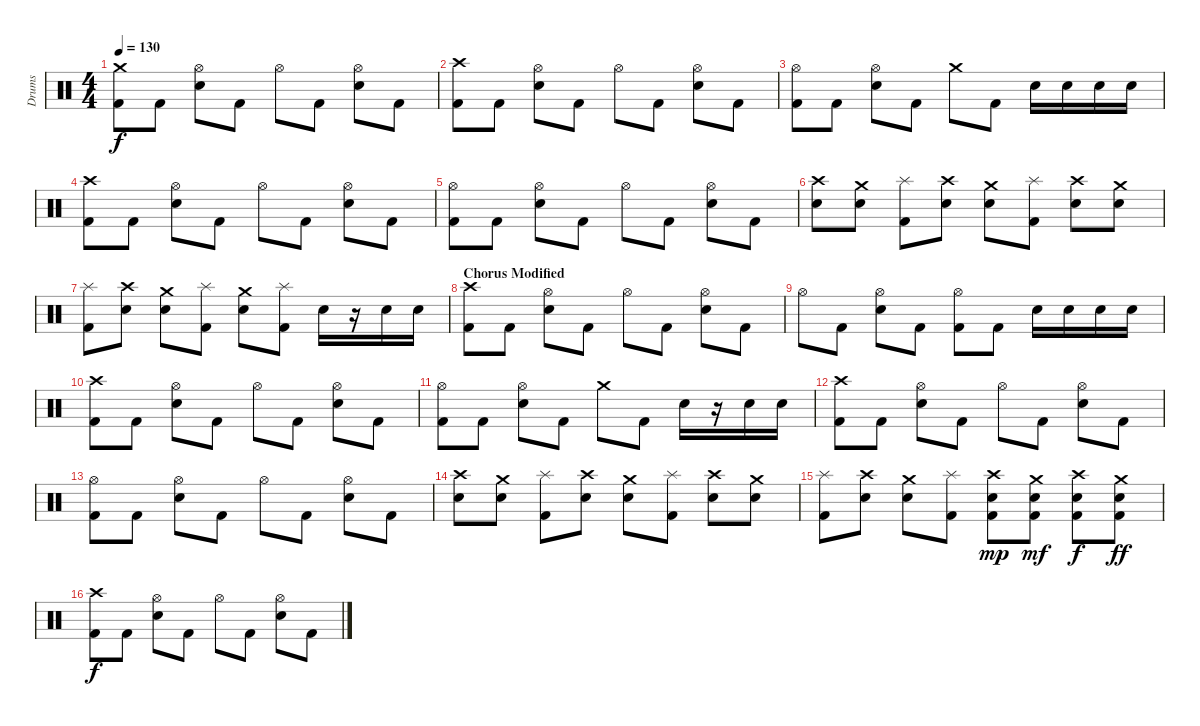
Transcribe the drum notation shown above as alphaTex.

\track ("Drums" "Drums") {instrument percussion}
\staff {score}
\articulation defaults
\ts (4 4)
\tempo 130
\clef neutral
\ks c
("Crash medium (hit)" "Kick (hit) 2").8{dy f} "Kick (hit) 2".8 ("Hi-Hat (open)" "Electric Snare (hit)").8 "Kick (hit) 2".8 "Hi-Hat (open)".8 "Kick (hit) 2".8 ("Hi-Hat (open)" "Electric Snare (hit)").8 "Kick (hit) 2".8 |
("Crash high (hit)" "Kick (hit) 2").8 "Kick (hit) 2".8 ("Hi-Hat (open)" "Electric Snare (hit)").8 "Kick (hit) 2".8 "Hi-Hat (open)".8 "Kick (hit) 2".8 ("Hi-Hat (open)" "Electric Snare (hit)").8 "Kick (hit) 2".8 |
("Hi-Hat (open)" "Kick (hit) 2").8 "Kick (hit) 2".8 ("Hi-Hat (open)" "Electric Snare (hit)").8 "Kick (hit) 2".8 "Crash medium (hit)".8 "Kick (hit) 2".8 "Electric Snare (hit)".16 "Electric Snare (hit)".16 "Electric Snare (hit)".16 "Electric Snare (hit)".16 |
("Crash high (hit)" "Kick (hit) 2").8 "Kick (hit) 2".8 ("Hi-Hat (open)" "Electric Snare (hit)").8 "Kick (hit) 2".8 "Hi-Hat (open)".8 "Kick (hit) 2".8 ("Hi-Hat (open)" "Electric Snare (hit)").8 "Kick (hit) 2".8 |
("Hi-Hat (open)" "Kick (hit) 2").8 "Kick (hit) 2".8 ("Hi-Hat (open)" "Electric Snare (hit)").8 "Kick (hit) 2".8 "Hi-Hat (open)".8 "Kick (hit) 2".8 ("Hi-Hat (open)" "Electric Snare (hit)").8 "Kick (hit) 2".8 |
("Crash high (hit)" "Electric Snare (hit)").8 ("Crash medium (hit)" "Electric Snare (hit)").8 ("Splash (hit)" "Kick (hit) 2").8 ("Crash high (hit)" "Electric Snare (hit)").8 ("Crash medium (hit)" "Electric Snare (hit)").8 ("Splash (hit)" "Kick (hit) 2").8 ("Crash high (hit)" "Electric Snare (hit)").8 ("Crash medium (hit)" "Electric Snare (hit)").8 |
("Splash (hit)" "Kick (hit) 2").8 ("Crash high (hit)" "Electric Snare (hit)").8 ("Crash medium (hit)" "Electric Snare (hit)").8 ("Splash (hit)" "Kick (hit) 2").8 ("Crash medium (hit)" "Electric Snare (hit)").8 ("Splash (hit)" "Kick (hit) 2").8 "Electric Snare (hit)".16 r.16 "Electric Snare (hit)".16 "Electric Snare (hit)".16 |
\section ("" "Chorus Modified")
("Crash high (hit)" "Kick (hit) 2").8 "Kick (hit) 2".8 ("Hi-Hat (open)" "Electric Snare (hit)").8 "Kick (hit) 2".8 "Hi-Hat (open)".8 "Kick (hit) 2".8 ("Hi-Hat (open)" "Electric Snare (hit)").8 "Kick (hit) 2".8 |
"Hi-Hat (open)".8 "Kick (hit) 2".8 ("Hi-Hat (open)" "Electric Snare (hit)").8 "Kick (hit) 2".8 ("Hi-Hat (open)" "Kick (hit) 2").8 "Kick (hit) 2".8 "Electric Snare (hit)".16 "Electric Snare (hit)".16 "Electric Snare (hit)".16 "Electric Snare (hit)".16 |
("Crash high (hit)" "Kick (hit) 2").8 "Kick (hit) 2".8 ("Hi-Hat (open)" "Electric Snare (hit)").8 "Kick (hit) 2".8 "Hi-Hat (open)".8 "Kick (hit) 2".8 ("Hi-Hat (open)" "Electric Snare (hit)").8 "Kick (hit) 2".8 |
("Hi-Hat (open)" "Kick (hit) 2").8 "Kick (hit) 2".8 ("Hi-Hat (open)" "Electric Snare (hit)").8 "Kick (hit) 2".8 "Crash medium (hit)".8 "Kick (hit) 2".8 "Electric Snare (hit)".16 r.16 "Electric Snare (hit)".16 "Electric Snare (hit)".16 |
("Crash high (hit)" "Kick (hit) 2").8 "Kick (hit) 2".8 ("Hi-Hat (open)" "Electric Snare (hit)").8 "Kick (hit) 2".8 "Hi-Hat (open)".8 "Kick (hit) 2".8 ("Hi-Hat (open)" "Electric Snare (hit)").8 "Kick (hit) 2".8 |
("Hi-Hat (open)" "Kick (hit) 2").8 "Kick (hit) 2".8 ("Hi-Hat (open)" "Electric Snare (hit)").8 "Kick (hit) 2".8 "Hi-Hat (open)".8 "Kick (hit) 2".8 ("Hi-Hat (open)" "Electric Snare (hit)").8 "Kick (hit) 2".8 |
("Crash high (hit)" "Electric Snare (hit)").8 ("Crash medium (hit)" "Electric Snare (hit)").8 ("Splash (hit)" "Kick (hit) 2").8 ("Crash high (hit)" "Electric Snare (hit)").8 ("Crash medium (hit)" "Electric Snare (hit)").8 ("Splash (hit)" "Kick (hit) 2").8 ("Crash high (hit)" "Electric Snare (hit)").8 ("Crash medium (hit)" "Electric Snare (hit)").8 |
("Splash (hit)" "Kick (hit) 2").8 ("Crash high (hit)" "Electric Snare (hit)").8 ("Crash medium (hit)" "Electric Snare (hit)").8 ("Splash (hit)" "Kick (hit) 2").8 ("Crash high (hit)" "Electric Snare (hit)" "Kick (hit) 2").8{dy mp} ("Crash medium (hit)" "Electric Snare (hit)" "Kick (hit) 2").8{dy mf} ("Crash high (hit)" "Electric Snare (hit)" "Kick (hit) 2").8{dy f} ("Crash medium (hit)" "Electric Snare (hit)" "Kick (hit) 2").8{dy ff} |
("Crash high (hit)" "Kick (hit) 2").8{dy f} "Kick (hit) 2".8 ("Hi-Hat (open)" "Electric Snare (hit)").8 "Kick (hit) 2".8 "Hi-Hat (open)".8 "Kick (hit) 2".8 ("Hi-Hat (open)" "Electric Snare (hit)").8 "Kick (hit) 2".8
